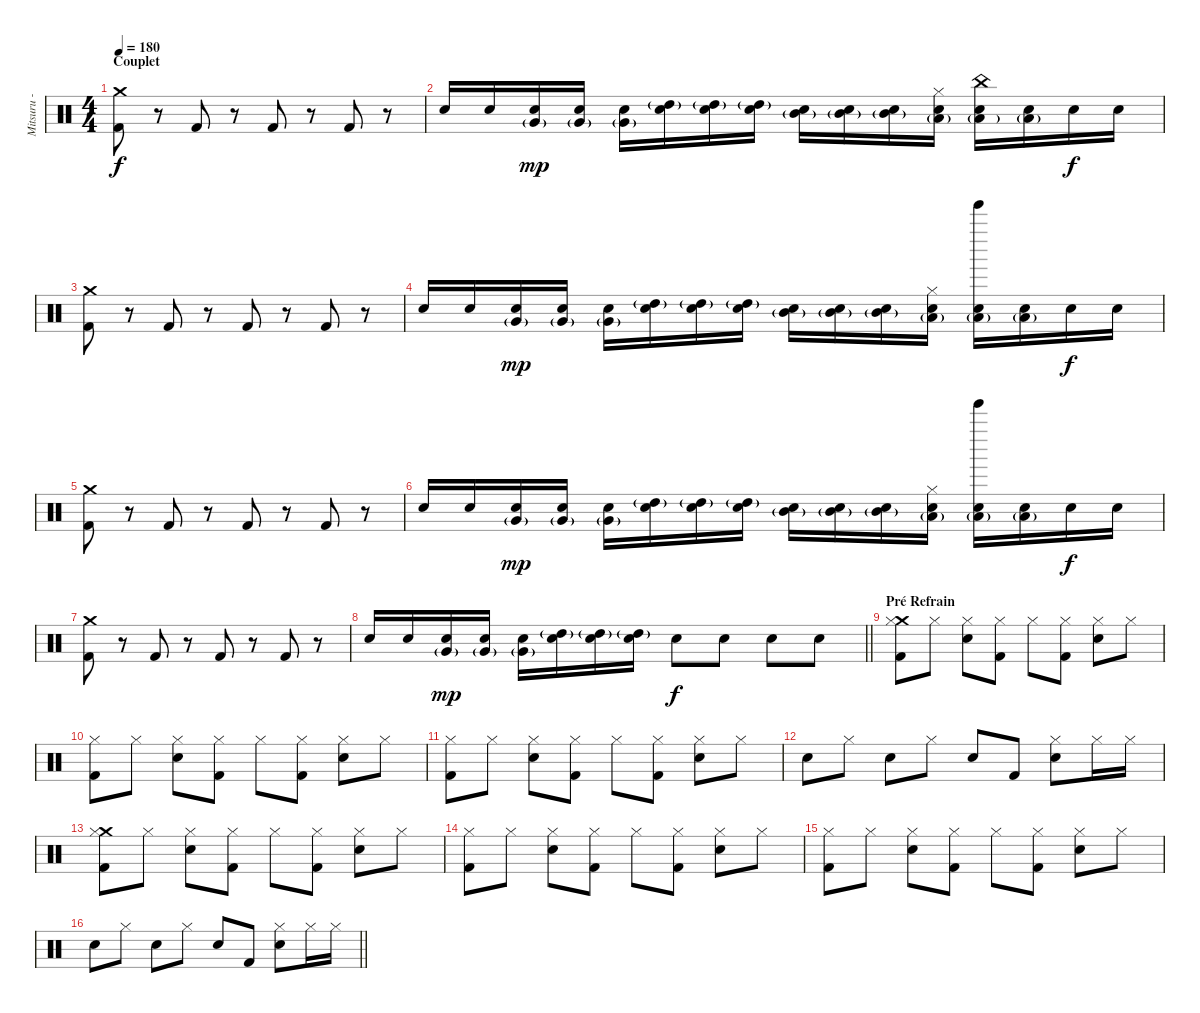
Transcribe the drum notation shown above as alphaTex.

\track ("Mitsuru - Batterie" "Mitsuru - ") {instrument percussion}
\staff {score}
\articulation defaults
\ts (4 4)
\section ("" "Couplet")
\tempo 180
\clef neutral
\ks c
("Crash medium (hit)" "Kick (hit) 2").8{dy f} r.8 "Kick (hit) 2".8 r.8 "Kick (hit) 2".8 r.8 "Kick (hit) 2".8 r.8 |
"Electric Snare (hit)".16 "Electric Snare (hit)".16 ("Very Low Tom (hit)"{g} "Electric Snare (hit)").16{dy mp} ("Very Low Tom (hit)"{g} "Electric Snare (hit)").16 ("Very Low Tom (hit)"{g} "Electric Snare (hit)").16 ("High Tom (hit)"{g} "Electric Snare (hit)").16 ("High Tom (hit)"{g} "Electric Snare (hit)").16 ("High Tom (hit)"{g} "Electric Snare (hit)").16 ("Mid Tom (hit)"{g} "Electric Snare (hit)").16 ("Mid Tom (hit)"{g} "Electric Snare (hit)").16 ("Mid Tom (hit)"{g} "Electric Snare (hit)").16 ("Hi-Hat (closed)" "Low Tom (hit)"{g} "Electric Snare (hit)").16 ("China (hit)" "Low Tom (hit)"{g} "Electric Snare (hit)").16 ("Low Tom (hit)"{g} "Electric Snare (hit)").16 "Electric Snare (hit)".16{dy f} "Electric Snare (hit)".16 |
("Crash medium (hit)" "Kick (hit) 2").8 r.8 "Kick (hit) 2".8 r.8 "Kick (hit) 2".8 r.8 "Kick (hit) 2".8 r.8 |
"Electric Snare (hit)".16 "Electric Snare (hit)".16 ("Very Low Tom (hit)"{g} "Electric Snare (hit)").16{dy mp} ("Very Low Tom (hit)"{g} "Electric Snare (hit)").16 ("Very Low Tom (hit)"{g} "Electric Snare (hit)").16 ("High Tom (hit)"{g} "Electric Snare (hit)").16 ("High Tom (hit)"{g} "Electric Snare (hit)").16 ("High Tom (hit)"{g} "Electric Snare (hit)").16 ("Mid Tom (hit)"{g} "Electric Snare (hit)").16 ("Mid Tom (hit)"{g} "Electric Snare (hit)").16 ("Mid Tom (hit)"{g} "Electric Snare (hit)").16 ("Hi-Hat (closed)" "Low Tom (hit)"{g} "Electric Snare (hit)").16 ("Tinkle Bell (hit)" "Low Tom (hit)"{g} "Electric Snare (hit)").16 ("Low Tom (hit)"{g} "Electric Snare (hit)").16 "Electric Snare (hit)".16{dy f} "Electric Snare (hit)".16 |
("Crash medium (hit)" "Kick (hit) 2").8 r.8 "Kick (hit) 2".8 r.8 "Kick (hit) 2".8 r.8 "Kick (hit) 2".8 r.8 |
"Electric Snare (hit)".16 "Electric Snare (hit)".16 ("Very Low Tom (hit)"{g} "Electric Snare (hit)").16{dy mp} ("Very Low Tom (hit)"{g} "Electric Snare (hit)").16 ("Very Low Tom (hit)"{g} "Electric Snare (hit)").16 ("High Tom (hit)"{g} "Electric Snare (hit)").16 ("High Tom (hit)"{g} "Electric Snare (hit)").16 ("High Tom (hit)"{g} "Electric Snare (hit)").16 ("Mid Tom (hit)"{g} "Electric Snare (hit)").16 ("Mid Tom (hit)"{g} "Electric Snare (hit)").16 ("Mid Tom (hit)"{g} "Electric Snare (hit)").16 ("Hi-Hat (closed)" "Low Tom (hit)"{g} "Electric Snare (hit)").16 ("Tinkle Bell (hit)" "Low Tom (hit)"{g} "Electric Snare (hit)").16 ("Low Tom (hit)"{g} "Electric Snare (hit)").16 "Electric Snare (hit)".16{dy f} "Electric Snare (hit)".16 |
("Crash medium (hit)" "Kick (hit) 2").8 r.8 "Kick (hit) 2".8 r.8 "Kick (hit) 2".8 r.8 "Kick (hit) 2".8 r.8 |
\barLineRight lightlight "Electric Snare (hit)".16 "Electric Snare (hit)".16
("Very Low Tom (hit)"{g} "Electric Snare (hit)").16{dy mp} ("Very Low Tom (hit)"{g} "Electric Snare (hit)").16 ("Very Low Tom (hit)"{g} "Electric Snare (hit)").16 ("High Tom (hit)"{g} "Electric Snare (hit)").16 ("High Tom (hit)"{g} "Electric Snare (hit)").16 ("High Tom (hit)"{g} "Electric Snare (hit)").16 "Electric Snare (hit)".8{dy f} "Electric Snare (hit)".8 "Electric Snare (hit)".8 "Electric Snare (hit)".8 |
\section ("" "Pré Refrain")
("Crash medium (hit)" "Hi-Hat (closed)" "Kick (hit) 2").8 "Hi-Hat (closed)".8 ("Hi-Hat (closed)" "Electric Snare (hit)").8 ("Hi-Hat (closed)" "Kick (hit) 2").8 "Hi-Hat (closed)".8 ("Hi-Hat (closed)" "Kick (hit) 2").8 ("Hi-Hat (closed)" "Electric Snare (hit)").8 "Hi-Hat (closed)".8 |
("Hi-Hat (closed)" "Kick (hit) 2").8 "Hi-Hat (closed)".8 ("Hi-Hat (closed)" "Electric Snare (hit)").8 ("Hi-Hat (closed)" "Kick (hit) 2").8 "Hi-Hat (closed)".8 ("Hi-Hat (closed)" "Kick (hit) 2").8 ("Hi-Hat (closed)" "Electric Snare (hit)").8 "Hi-Hat (closed)".8 |
("Hi-Hat (closed)" "Kick (hit) 2").8 "Hi-Hat (closed)".8 ("Hi-Hat (closed)" "Electric Snare (hit)").8 ("Hi-Hat (closed)" "Kick (hit) 2").8 "Hi-Hat (closed)".8 ("Hi-Hat (closed)" "Kick (hit) 2").8 ("Hi-Hat (closed)" "Electric Snare (hit)").8 "Hi-Hat (closed)".8 |
"Electric Snare (hit)".8 "Hi-Hat (closed)".8 "Electric Snare (hit)".8 "Hi-Hat (closed)".8 "Electric Snare (hit)".8 "Kick (hit) 2".8 ("Hi-Hat (closed)" "Electric Snare (hit)").8 "Hi-Hat (closed)".16 "Hi-Hat (closed)".16 |
("Crash medium (hit)" "Hi-Hat (closed)" "Kick (hit) 2").8 "Hi-Hat (closed)".8 ("Hi-Hat (closed)" "Electric Snare (hit)").8 ("Hi-Hat (closed)" "Kick (hit) 2").8 "Hi-Hat (closed)".8 ("Hi-Hat (closed)" "Kick (hit) 2").8 ("Hi-Hat (closed)" "Electric Snare (hit)").8 "Hi-Hat (closed)".8 |
("Hi-Hat (closed)" "Kick (hit) 2").8 "Hi-Hat (closed)".8 ("Hi-Hat (closed)" "Electric Snare (hit)").8 ("Hi-Hat (closed)" "Kick (hit) 2").8 "Hi-Hat (closed)".8 ("Hi-Hat (closed)" "Kick (hit) 2").8 ("Hi-Hat (closed)" "Electric Snare (hit)").8 "Hi-Hat (closed)".8 |
("Hi-Hat (closed)" "Kick (hit) 2").8 "Hi-Hat (closed)".8 ("Hi-Hat (closed)" "Electric Snare (hit)").8 ("Hi-Hat (closed)" "Kick (hit) 2").8 "Hi-Hat (closed)".8 ("Hi-Hat (closed)" "Kick (hit) 2").8 ("Hi-Hat (closed)" "Electric Snare (hit)").8 "Hi-Hat (closed)".8 |
\barLineRight lightlight "Electric Snare (hit)".8 "Hi-Hat (closed)".8 "Electric Snare (hit)".8 "Hi-Hat (closed)".8 "Electric Snare (hit)".8 "Kick (hit) 2".8
("Hi-Hat (closed)" "Electric Snare (hit)").8 "Hi-Hat (closed)".16 "Hi-Hat (closed)".16
